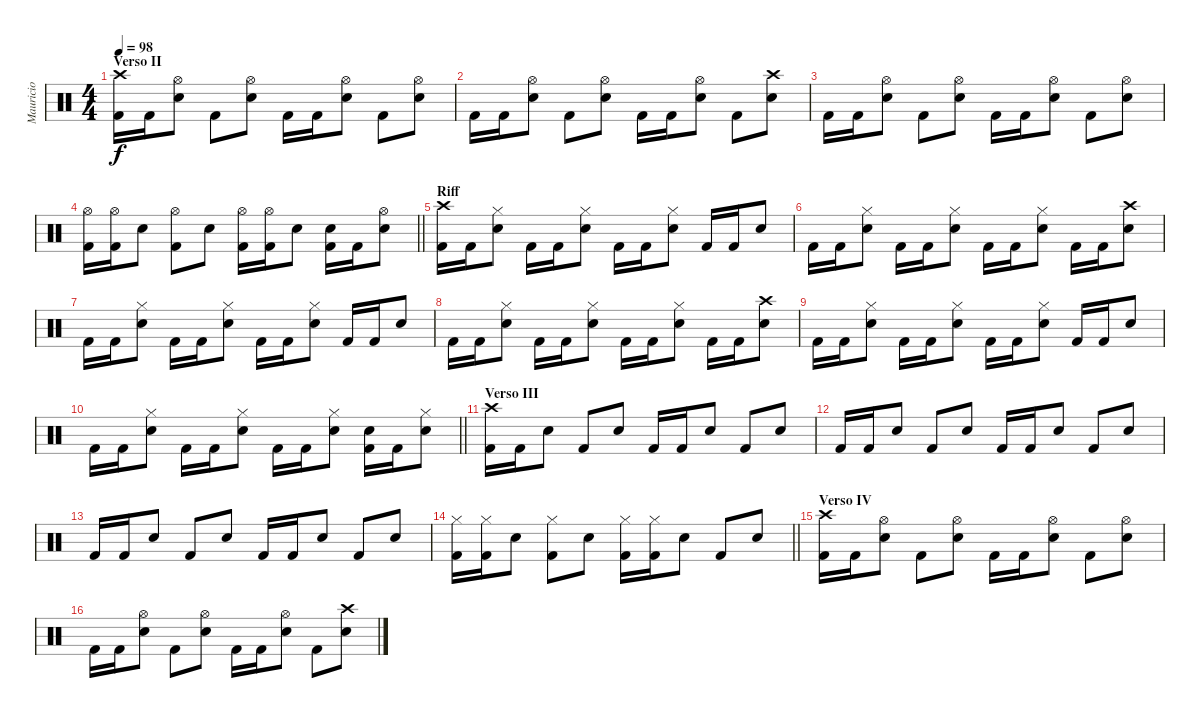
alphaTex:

\track ("Mauricio" "Mauricio") {instrument percussion}
\staff {score}
\articulation defaults
\ts (4 4)
\section ("" "Verso II")
\tempo 98
\clef neutral
\ks c
("Crash high (hit)" "Kick (hit) 2").16{dy f} "Kick (hit) 2".16 ("Hi-Hat (open)" "Electric Snare (hit)").8 "Kick (hit) 2".8 ("Hi-Hat (open)" "Electric Snare (hit)").8 "Kick (hit) 2".16 "Kick (hit) 2".16 ("Hi-Hat (open)" "Electric Snare (hit)").8 "Kick (hit) 2".8 ("Hi-Hat (open)" "Electric Snare (hit)").8 |
"Kick (hit) 2".16 "Kick (hit) 2".16 ("Hi-Hat (open)" "Electric Snare (hit)").8 "Kick (hit) 2".8 ("Hi-Hat (open)" "Electric Snare (hit)").8 "Kick (hit) 2".16 "Kick (hit) 2".16 ("Hi-Hat (open)" "Electric Snare (hit)").8 "Kick (hit) 2".8 ("Crash high (hit)" "Electric Snare (hit)").8 |
"Kick (hit) 2".16 "Kick (hit) 2".16 ("Hi-Hat (open)" "Electric Snare (hit)").8 "Kick (hit) 2".8 ("Hi-Hat (open)" "Electric Snare (hit)").8 "Kick (hit) 2".16 "Kick (hit) 2".16 ("Hi-Hat (open)" "Electric Snare (hit)").8 "Kick (hit) 2".8 ("Hi-Hat (open)" "Electric Snare (hit)").8 |
\barLineRight lightlight
("Hi-Hat (open)" "Kick (hit) 2").16 ("Hi-Hat (open)" "Kick (hit) 2").16 "Electric Snare (hit)".8 ("Hi-Hat (open)" "Kick (hit) 2").8 "Electric Snare (hit)".8 ("Hi-Hat (open)" "Kick (hit) 2").16 ("Hi-Hat (open)" "Kick (hit) 2").16 "Electric Snare (hit)".8 ("Electric Snare (hit)" "Kick (hit) 2").16 "Kick (hit) 2".16 ("Hi-Hat (open)" "Electric Snare (hit)").8 |
\section ("" "Riff")
("Crash high (hit)" "Kick (hit) 2").16 "Kick (hit) 2".16 ("Hi-Hat (closed)" "Electric Snare (hit)").8 "Kick (hit) 2".16 "Kick (hit) 2".16 ("Hi-Hat (closed)" "Electric Snare (hit)").8 "Kick (hit) 2".16 "Kick (hit) 2".16 ("Hi-Hat (closed)" "Electric Snare (hit)").8 "Kick (hit) 2".16 "Kick (hit) 2".16 "Electric Snare (hit)".8 |
"Kick (hit) 2".16 "Kick (hit) 2".16 ("Hi-Hat (closed)" "Electric Snare (hit)").8 "Kick (hit) 2".16 "Kick (hit) 2".16 ("Hi-Hat (closed)" "Electric Snare (hit)").8 "Kick (hit) 2".16 "Kick (hit) 2".16 ("Hi-Hat (closed)" "Electric Snare (hit)").8 "Kick (hit) 2".16 "Kick (hit) 2".16 ("Crash high (hit)" "Electric Snare (hit)").8 |
"Kick (hit) 2".16 "Kick (hit) 2".16 ("Hi-Hat (closed)" "Electric Snare (hit)").8 "Kick (hit) 2".16 "Kick (hit) 2".16 ("Hi-Hat (closed)" "Electric Snare (hit)").8 "Kick (hit) 2".16 "Kick (hit) 2".16 ("Hi-Hat (closed)" "Electric Snare (hit)").8 "Kick (hit) 2".16 "Kick (hit) 2".16 "Electric Snare (hit)".8 |
"Kick (hit) 2".16 "Kick (hit) 2".16 ("Hi-Hat (closed)" "Electric Snare (hit)").8 "Kick (hit) 2".16 "Kick (hit) 2".16 ("Hi-Hat (closed)" "Electric Snare (hit)").8 "Kick (hit) 2".16 "Kick (hit) 2".16 ("Hi-Hat (closed)" "Electric Snare (hit)").8 "Kick (hit) 2".16 "Kick (hit) 2".16 ("Crash high (hit)" "Electric Snare (hit)").8 |
"Kick (hit) 2".16 "Kick (hit) 2".16 ("Hi-Hat (closed)" "Electric Snare (hit)").8 "Kick (hit) 2".16 "Kick (hit) 2".16 ("Hi-Hat (closed)" "Electric Snare (hit)").8 "Kick (hit) 2".16 "Kick (hit) 2".16 ("Hi-Hat (closed)" "Electric Snare (hit)").8 "Kick (hit) 2".16 "Kick (hit) 2".16 "Electric Snare (hit)".8 |
\barLineRight lightlight "Kick (hit) 2".16 "Kick (hit) 2".16
("Hi-Hat (closed)" "Electric Snare (hit)").8 "Kick (hit) 2".16 "Kick (hit) 2".16 ("Hi-Hat (closed)" "Electric Snare (hit)").8 "Kick (hit) 2".16 "Kick (hit) 2".16 ("Hi-Hat (closed)" "Electric Snare (hit)").8 ("Electric Snare (hit)" "Kick (hit) 2").16 "Kick (hit) 2".16 ("Hi-Hat (closed)" "Electric Snare (hit)").8 |
\section ("" "Verso III")
("Crash high (hit)" "Kick (hit) 2").16 "Kick (hit) 2".16 "Electric Snare (hit)".8 "Kick (hit) 2".8 "Electric Snare (hit)".8 "Kick (hit) 2".16 "Kick (hit) 2".16 "Electric Snare (hit)".8 "Kick (hit) 2".8 "Electric Snare (hit)".8 |
"Kick (hit) 2".16 "Kick (hit) 2".16 "Electric Snare (hit)".8 "Kick (hit) 2".8 "Electric Snare (hit)".8 "Kick (hit) 2".16 "Kick (hit) 2".16 "Electric Snare (hit)".8 "Kick (hit) 2".8 "Electric Snare (hit)".8 |
"Kick (hit) 2".16 "Kick (hit) 2".16 "Electric Snare (hit)".8 "Kick (hit) 2".8 "Electric Snare (hit)".8 "Kick (hit) 2".16 "Kick (hit) 2".16 "Electric Snare (hit)".8 "Kick (hit) 2".8 "Electric Snare (hit)".8 |
\barLineRight lightlight
("Hi-Hat (closed)" "Kick (hit) 2").16 ("Hi-Hat (closed)" "Kick (hit) 2").16 "Electric Snare (hit)".8 ("Hi-Hat (closed)" "Kick (hit) 2").8 "Electric Snare (hit)".8 ("Hi-Hat (closed)" "Kick (hit) 2").16 ("Hi-Hat (closed)" "Kick (hit) 2").16 "Electric Snare (hit)".8 "Kick (hit) 2".8 "Electric Snare (hit)".8 |
\section ("" "Verso IV")
("Crash high (hit)" "Kick (hit) 2").16 "Kick (hit) 2".16 ("Hi-Hat (open)" "Electric Snare (hit)").8 "Kick (hit) 2".8 ("Hi-Hat (open)" "Electric Snare (hit)").8 "Kick (hit) 2".16 "Kick (hit) 2".16 ("Hi-Hat (open)" "Electric Snare (hit)").8 "Kick (hit) 2".8 ("Hi-Hat (open)" "Electric Snare (hit)").8 |
"Kick (hit) 2".16 "Kick (hit) 2".16 ("Hi-Hat (open)" "Electric Snare (hit)").8 "Kick (hit) 2".8 ("Hi-Hat (open)" "Electric Snare (hit)").8 "Kick (hit) 2".16 "Kick (hit) 2".16 ("Hi-Hat (open)" "Electric Snare (hit)").8 "Kick (hit) 2".8 ("Crash high (hit)" "Electric Snare (hit)").8
